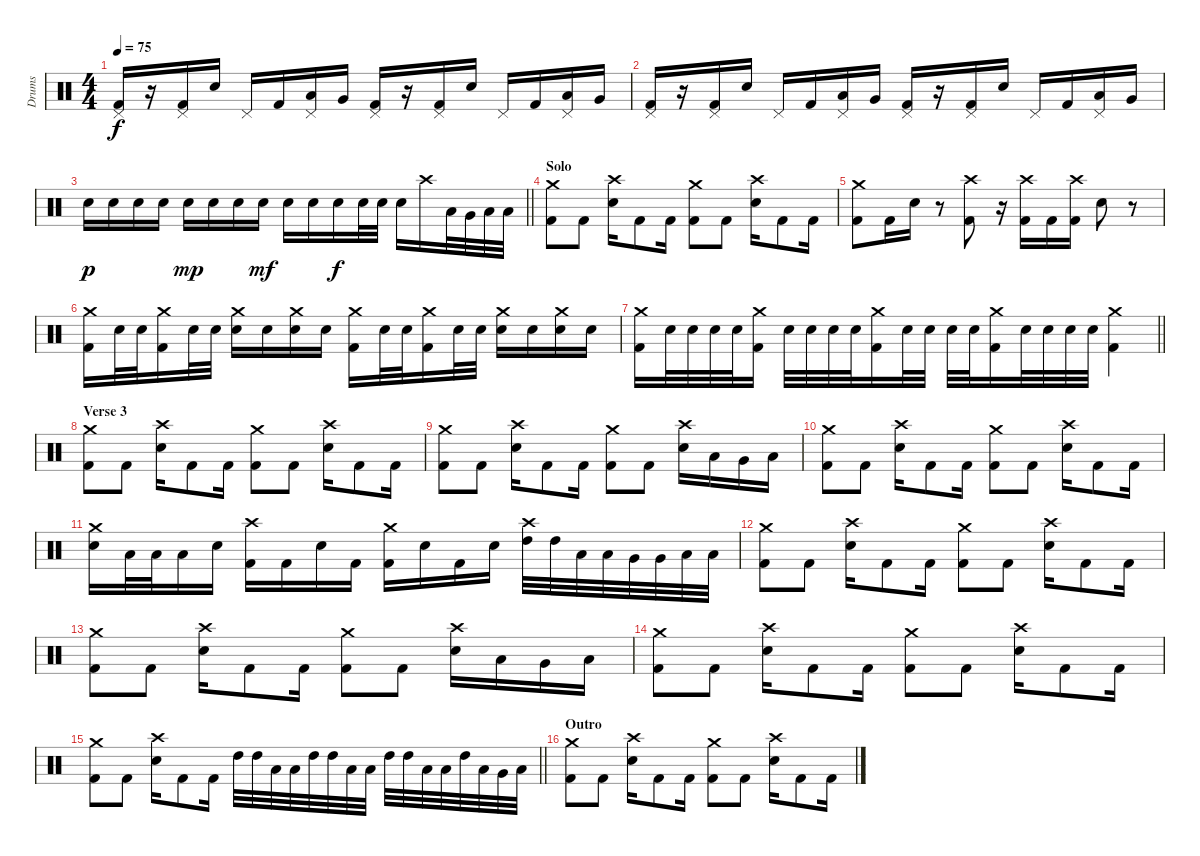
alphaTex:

\track ("Drums" "Drums") {instrument percussion}
\staff {score}
\articulation defaults
\ts (4 4)
\tempo 75
\clef neutral
\ks c
("Pedal Hi-Hat (hit)" "Kick (hit) 2").16{dy f} r.16 ("Pedal Hi-Hat (hit)" "Kick (hit) 2").16 "Snare (hit) 2".16 "Pedal Hi-Hat (hit)".16 "Kick (hit) 2".16 ("Pedal Hi-Hat (hit)" "Low Tom (hit)").16 "Very Low Tom (hit)".16 ("Pedal Hi-Hat (hit)" "Kick (hit) 2").16 r.16 ("Pedal Hi-Hat (hit)" "Kick (hit) 2").16 "Snare (hit) 2".16 "Pedal Hi-Hat (hit)".16 "Kick (hit) 2".16 ("Pedal Hi-Hat (hit)" "Low Tom (hit)").16 "Very Low Tom (hit)".16 |
("Pedal Hi-Hat (hit)" "Kick (hit) 2").16 r.16 ("Pedal Hi-Hat (hit)" "Kick (hit) 2").16 "Snare (hit) 2".16 "Pedal Hi-Hat (hit)".16 "Kick (hit) 2".16 ("Pedal Hi-Hat (hit)" "Low Tom (hit)").16 "Very Low Tom (hit)".16 ("Pedal Hi-Hat (hit)" "Kick (hit) 2").16 r.16 ("Pedal Hi-Hat (hit)" "Kick (hit) 2").16 "Snare (hit) 2".16 "Pedal Hi-Hat (hit)".16 "Kick (hit) 2".16 ("Pedal Hi-Hat (hit)" "Low Tom (hit)").16 "Very Low Tom (hit)".16 |
\barLineRight lightlight "Snare (hit) 2".16{dy p} "Snare (hit) 2".16 "Snare (hit) 2".16 "Snare (hit) 2".16 "Snare (hit) 2".16{dy mp} "Snare (hit) 2".16 "Snare (hit) 2".16 "Snare (hit) 2".16{dy mf} "Snare (hit) 2".16 "Snare (hit) 2".16 "Snare (hit) 2".16{dy f} "Snare (hit) 2".32 "Snare (hit) 2".32 "Snare (hit) 2".16 "Crash high (hit)".16 "Low Tom (hit)".32 "Very Low Tom (hit)".32 "Low Floor Tom (hit)".32 "Low Floor Tom (hit)".32
|
\section ("" "Solo")
("Crash medium (hit)" "Kick (hit) 2").8 "Kick (hit) 2".8 ("Crash high (hit)" "Snare (hit) 2").16 "Kick (hit) 2".8 "Kick (hit) 2".16 ("Crash medium (hit)" "Kick (hit) 2").8 "Kick (hit) 2".8 ("Crash high (hit)" "Snare (hit) 2").16 "Kick (hit) 2".8 "Kick (hit) 2".16 |
("Crash medium (hit)" "Kick (hit) 2").8 "Kick (hit) 2".16 "Snare (hit) 2".16 r.8 ("Crash high (hit)" "Kick (hit) 2").8 r.16 ("Crash high (hit)" "Kick (hit) 2").16 "Kick (hit) 2".16 ("Crash high (hit)" "Kick (hit) 2").16 "Snare (hit) 2".8 r.8 |
("Crash medium (hit)" "Kick (hit) 2").16 "Snare (hit) 2".32 "Snare (hit) 2".32 ("Crash medium (hit)" "Kick (hit) 2").16 "Snare (hit) 2".32 "Snare (hit) 2".32 ("Crash medium (hit)" "Snare (hit) 2").16 "Snare (hit) 2".16 ("Crash medium (hit)" "Snare (hit) 2").16 "Snare (hit) 2".16 ("Crash medium (hit)" "Kick (hit) 2").16 "Snare (hit) 2".32 "Snare (hit) 2".32 ("Crash medium (hit)" "Kick (hit) 2").16 "Snare (hit) 2".32 "Snare (hit) 2".32 ("Crash medium (hit)" "Snare (hit) 2").16 "Snare (hit) 2".16 ("Crash medium (hit)" "Snare (hit) 2").16 "Snare (hit) 2".16 |
\barLineRight lightlight
("Crash medium (hit)" "Kick (hit) 2").16 "Snare (hit) 2".32 "Snare (hit) 2".32 "Snare (hit) 2".32 "Snare (hit) 2".32 ("Crash medium (hit)" "Kick (hit) 2").16 "Snare (hit) 2".32 "Snare (hit) 2".32 "Snare (hit) 2".32 "Snare (hit) 2".32 ("Crash medium (hit)" "Kick (hit) 2").16 "Snare (hit) 2".32 "Snare (hit) 2".32 "Snare (hit) 2".32 "Snare (hit) 2".32 ("Crash medium (hit)" "Kick (hit) 2").16 "Snare (hit) 2".32 "Snare (hit) 2".32 "Snare (hit) 2".32 "Snare (hit) 2".32 ("Crash medium (hit)" "Kick (hit) 2").4 |
\section ("" "Verse 3")
("Crash medium (hit)" "Kick (hit) 2").8 "Kick (hit) 2".8 ("Crash high (hit)" "Snare (hit) 2").16 "Kick (hit) 2".8 "Kick (hit) 2".16 ("Crash medium (hit)" "Kick (hit) 2").8 "Kick (hit) 2".8 ("Crash high (hit)" "Snare (hit) 2").16 "Kick (hit) 2".8 "Kick (hit) 2".16 |
("Crash medium (hit)" "Kick (hit) 2").8 "Kick (hit) 2".8 ("Crash high (hit)" "Snare (hit) 2").16 "Kick (hit) 2".8 "Kick (hit) 2".16 ("Crash medium (hit)" "Kick (hit) 2").8 "Kick (hit) 2".8 ("Crash high (hit)" "Snare (hit) 2").16 "Low Tom (hit)".16 "Very Low Tom (hit)".16 "Low Floor Tom (hit)".16 |
("Crash medium (hit)" "Kick (hit) 2").8 "Kick (hit) 2".8 ("Crash high (hit)" "Snare (hit) 2").16 "Kick (hit) 2".8 "Kick (hit) 2".16 ("Crash medium (hit)" "Kick (hit) 2").8 "Kick (hit) 2".8 ("Crash high (hit)" "Snare (hit) 2").16 "Kick (hit) 2".8 "Kick (hit) 2".16 |
("Crash medium (hit)" "Snare (hit) 2").16 "Low Tom (hit)".32 "Low Tom (hit)".32 "Low Tom (hit)".16 "Snare (hit) 2".16 ("Crash high (hit)" "Kick (hit) 2").16 "Kick (hit) 2".16 "Snare (hit) 2".16 "Kick (hit) 2".16 ("Crash medium (hit)" "Kick (hit) 2").16 "Snare (hit) 2".16 "Kick (hit) 2".16 "Snare (hit) 2".16 ("Crash high (hit)" "High Tom (hit)").32 "High Tom (hit)".32 "Low Tom (hit)".32 "Low Tom (hit)".32 "Very Low Tom (hit)".32 "Very Low Tom (hit)".32 "Low Floor Tom (hit)".32 "Low Floor Tom (hit)".32 |
("Crash medium (hit)" "Kick (hit) 2").8 "Kick (hit) 2".8 ("Crash high (hit)" "Snare (hit) 2").16 "Kick (hit) 2".8 "Kick (hit) 2".16 ("Crash medium (hit)" "Kick (hit) 2").8 "Kick (hit) 2".8 ("Crash high (hit)" "Snare (hit) 2").16 "Kick (hit) 2".8 "Kick (hit) 2".16 |
("Crash medium (hit)" "Kick (hit) 2").8 "Kick (hit) 2".8 ("Crash high (hit)" "Snare (hit) 2").16 "Kick (hit) 2".8 "Kick (hit) 2".16 ("Crash medium (hit)" "Kick (hit) 2").8 "Kick (hit) 2".8 ("Crash high (hit)" "Snare (hit) 2").16 "Low Tom (hit)".16 "Very Low Tom (hit)".16 "Low Floor Tom (hit)".16 |
("Crash medium (hit)" "Kick (hit) 2").8 "Kick (hit) 2".8 ("Crash high (hit)" "Snare (hit) 2").16 "Kick (hit) 2".8 "Kick (hit) 2".16 ("Crash medium (hit)" "Kick (hit) 2").8 "Kick (hit) 2".8 ("Crash high (hit)" "Snare (hit) 2").16 "Kick (hit) 2".8 "Kick (hit) 2".16 |
\barLineRight lightlight
("Crash medium (hit)" "Kick (hit) 2").8 "Kick (hit) 2".8 ("Crash high (hit)" "Snare (hit) 2").16 "Kick (hit) 2".8 "Kick (hit) 2".16 "High Tom (hit)".32 "High Tom (hit)".32 "Low Tom (hit)".32 "Low Tom (hit)".32 "High Tom (hit)".32 "High Tom (hit)".32 "Low Tom (hit)".32 "Low Tom (hit)".32 "High Tom (hit)".32 "High Tom (hit)".32 "Low Tom (hit)".32 "Low Tom (hit)".32 "High Tom (hit)".32 "Low Tom (hit)".32 "Very Low Tom (hit)".32 "Low Floor Tom (hit)".32 |
\section ("" "Outro")
("Crash medium (hit)" "Kick (hit) 2").8 "Kick (hit) 2".8 ("Crash high (hit)" "Snare (hit) 2").16 "Kick (hit) 2".8 "Kick (hit) 2".16 ("Crash medium (hit)" "Kick (hit) 2").8 "Kick (hit) 2".8 ("Crash high (hit)" "Snare (hit) 2").16 "Kick (hit) 2".8 "Kick (hit) 2".16
